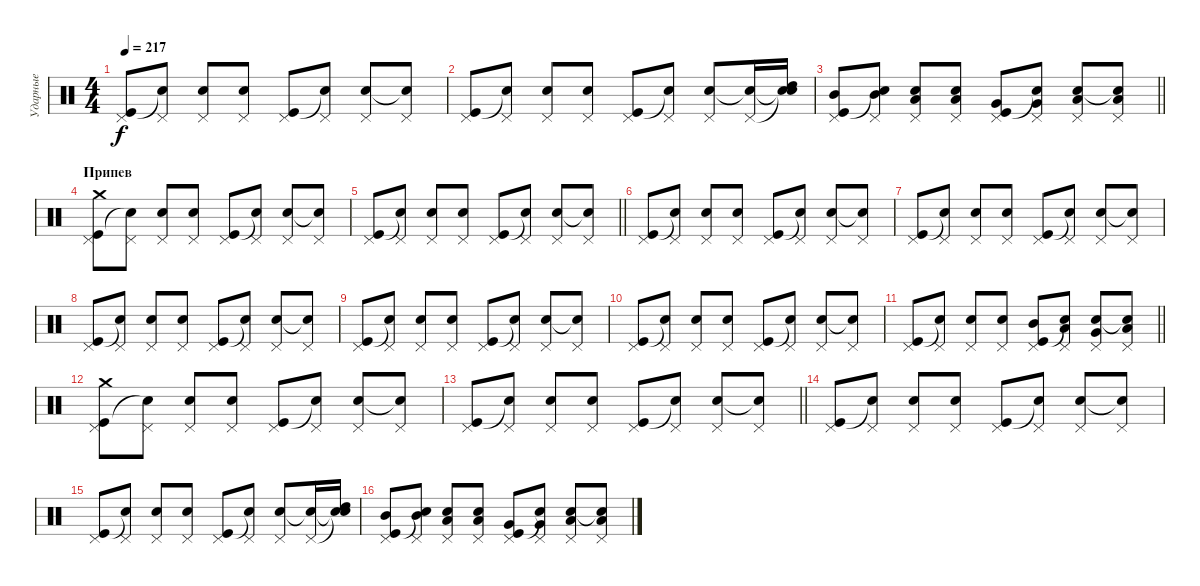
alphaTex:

\track ("Ударные" "Ударные") {instrument percussion}
\staff {score}
\articulation defaults
\ts (4 4)
\tempo 217
\clef neutral
\ks c
("Pedal Hi-Hat (hit)" "Kick (hit)").8{dy f} ("Pedal Hi-Hat (hit)" "Snare (hit)"{t}).8 ("Pedal Hi-Hat (hit)" "Snare (hit) 2").8 ("Pedal Hi-Hat (hit)" "Snare (hit) 2").8 ("Pedal Hi-Hat (hit)" "Kick (hit)").8 ("Pedal Hi-Hat (hit)" "Snare (hit)"{t}).8 ("Pedal Hi-Hat (hit)" "Snare (hit) 2").8 ("Pedal Hi-Hat (hit)" "Snare (hit)"{t}).8 |
("Pedal Hi-Hat (hit)" "Kick (hit)").8 ("Pedal Hi-Hat (hit)" "Snare (hit)"{t}).8 ("Pedal Hi-Hat (hit)" "Snare (hit) 2").8 ("Pedal Hi-Hat (hit)" "Snare (hit) 2").8 ("Pedal Hi-Hat (hit)" "Kick (hit)").8 ("Pedal Hi-Hat (hit)" "Snare (hit)"{t}).8 ("Pedal Hi-Hat (hit)" "Snare (hit) 2").8 ("Pedal Hi-Hat (hit)" "Snare (hit)"{t}).16 ("Snare (hit)"{t} "Snare (hit)"{t} "High Tom (hit)").16 |
\barLineRight lightlight
("Pedal Hi-Hat (hit)" "Kick (hit)" "Mid Tom (hit)").8 ("Pedal Hi-Hat (hit)" "Snare (hit)"{t} "Mid Tom (hit)").8 ("Pedal Hi-Hat (hit)" "Snare (hit) 2" "Low Tom (hit)").8 ("Pedal Hi-Hat (hit)" "Snare (hit) 2" "Low Tom (hit)").8 ("Pedal Hi-Hat (hit)" "Kick (hit)" "Very Low Tom (hit)").8 ("Pedal Hi-Hat (hit)" "Snare (hit)"{t} "Very Low Tom (hit)").8 ("Pedal Hi-Hat (hit)" "Snare (hit) 2" "Low Floor Tom (hit)").8 ("Pedal Hi-Hat (hit)" "Snare (hit)"{t} "Low Floor Tom (hit)").8 |
\section ("" "Припев")
("Pedal Hi-Hat (hit)" "Kick (hit)" "Crash medium (hit)").8 ("Pedal Hi-Hat (hit)" "Snare (hit)"{t}).8 ("Pedal Hi-Hat (hit)" "Snare (hit) 2").8 ("Pedal Hi-Hat (hit)" "Snare (hit) 2").8 ("Pedal Hi-Hat (hit)" "Kick (hit)").8 ("Pedal Hi-Hat (hit)" "Snare (hit)"{t}).8 ("Pedal Hi-Hat (hit)" "Snare (hit) 2").8 ("Pedal Hi-Hat (hit)" "Snare (hit)"{t}).8 |
\barLineRight lightlight
("Pedal Hi-Hat (hit)" "Kick (hit)").8 ("Pedal Hi-Hat (hit)" "Snare (hit)"{t}).8 ("Pedal Hi-Hat (hit)" "Snare (hit) 2").8 ("Pedal Hi-Hat (hit)" "Snare (hit) 2").8 ("Pedal Hi-Hat (hit)" "Kick (hit)").8 ("Pedal Hi-Hat (hit)" "Snare (hit)"{t}).8 ("Pedal Hi-Hat (hit)" "Snare (hit) 2").8 ("Pedal Hi-Hat (hit)" "Snare (hit)"{t}).8 |
("Pedal Hi-Hat (hit)" "Kick (hit)").8 ("Pedal Hi-Hat (hit)" "Snare (hit)"{t}).8 ("Pedal Hi-Hat (hit)" "Snare (hit) 2").8 ("Pedal Hi-Hat (hit)" "Snare (hit) 2").8 ("Pedal Hi-Hat (hit)" "Kick (hit)").8 ("Pedal Hi-Hat (hit)" "Snare (hit)"{t}).8 ("Pedal Hi-Hat (hit)" "Snare (hit) 2").8 ("Pedal Hi-Hat (hit)" "Snare (hit)"{t}).8 |
("Pedal Hi-Hat (hit)" "Kick (hit)").8 ("Pedal Hi-Hat (hit)" "Snare (hit)"{t}).8 ("Pedal Hi-Hat (hit)" "Snare (hit) 2").8 ("Pedal Hi-Hat (hit)" "Snare (hit) 2").8 ("Pedal Hi-Hat (hit)" "Kick (hit)").8 ("Pedal Hi-Hat (hit)" "Snare (hit)"{t}).8 ("Pedal Hi-Hat (hit)" "Snare (hit) 2").8 ("Pedal Hi-Hat (hit)" "Snare (hit)"{t}).8 |
("Pedal Hi-Hat (hit)" "Kick (hit)").8 ("Pedal Hi-Hat (hit)" "Snare (hit)"{t}).8 ("Pedal Hi-Hat (hit)" "Snare (hit) 2").8 ("Pedal Hi-Hat (hit)" "Snare (hit) 2").8 ("Pedal Hi-Hat (hit)" "Kick (hit)").8 ("Pedal Hi-Hat (hit)" "Snare (hit)"{t}).8 ("Pedal Hi-Hat (hit)" "Snare (hit) 2").8 ("Pedal Hi-Hat (hit)" "Snare (hit)"{t}).8 |
("Pedal Hi-Hat (hit)" "Kick (hit)").8 ("Pedal Hi-Hat (hit)" "Snare (hit)"{t}).8 ("Pedal Hi-Hat (hit)" "Snare (hit) 2").8 ("Pedal Hi-Hat (hit)" "Snare (hit) 2").8 ("Pedal Hi-Hat (hit)" "Kick (hit)").8 ("Pedal Hi-Hat (hit)" "Snare (hit)"{t}).8 ("Pedal Hi-Hat (hit)" "Snare (hit) 2").8 ("Pedal Hi-Hat (hit)" "Snare (hit)"{t}).8 |
("Pedal Hi-Hat (hit)" "Kick (hit)").8 ("Pedal Hi-Hat (hit)" "Snare (hit)"{t}).8 ("Pedal Hi-Hat (hit)" "Snare (hit) 2").8 ("Pedal Hi-Hat (hit)" "Snare (hit) 2").8 ("Pedal Hi-Hat (hit)" "Kick (hit)").8 ("Pedal Hi-Hat (hit)" "Snare (hit)"{t}).8 ("Pedal Hi-Hat (hit)" "Snare (hit) 2").8 ("Pedal Hi-Hat (hit)" "Snare (hit)"{t}).8 |
\barLineRight lightlight
("Pedal Hi-Hat (hit)" "Kick (hit)").8 ("Pedal Hi-Hat (hit)" "Snare (hit)"{t}).8 ("Pedal Hi-Hat (hit)" "Snare (hit) 2").8 ("Pedal Hi-Hat (hit)" "Snare (hit) 2").8 ("Pedal Hi-Hat (hit)" "Kick (hit)" "Mid Tom (hit)").8 ("Pedal Hi-Hat (hit)" "Snare (hit)"{t} "Low Tom (hit)").8 ("Pedal Hi-Hat (hit)" "Snare (hit) 2" "Very Low Tom (hit)").8 ("Pedal Hi-Hat (hit)" "Snare (hit)"{t} "Low Floor Tom (hit)").8 |
("Pedal Hi-Hat (hit)" "Kick (hit)" "Crash medium (hit)").8 ("Pedal Hi-Hat (hit)" "Snare (hit)"{t}).8 ("Pedal Hi-Hat (hit)" "Snare (hit) 2").8 ("Pedal Hi-Hat (hit)" "Snare (hit) 2").8 ("Pedal Hi-Hat (hit)" "Kick (hit)").8 ("Pedal Hi-Hat (hit)" "Snare (hit)"{t}).8 ("Pedal Hi-Hat (hit)" "Snare (hit) 2").8 ("Pedal Hi-Hat (hit)" "Snare (hit)"{t}).8 |
\barLineRight lightlight
("Pedal Hi-Hat (hit)" "Kick (hit)").8 ("Pedal Hi-Hat (hit)" "Snare (hit)"{t}).8 ("Pedal Hi-Hat (hit)" "Snare (hit) 2").8 ("Pedal Hi-Hat (hit)" "Snare (hit) 2").8 ("Pedal Hi-Hat (hit)" "Kick (hit)").8 ("Pedal Hi-Hat (hit)" "Snare (hit)"{t}).8 ("Pedal Hi-Hat (hit)" "Snare (hit) 2").8 ("Pedal Hi-Hat (hit)" "Snare (hit)"{t}).8 |
("Pedal Hi-Hat (hit)" "Kick (hit)").8 ("Pedal Hi-Hat (hit)" "Snare (hit)"{t}).8 ("Pedal Hi-Hat (hit)" "Snare (hit) 2").8 ("Pedal Hi-Hat (hit)" "Snare (hit) 2").8 ("Pedal Hi-Hat (hit)" "Kick (hit)").8 ("Pedal Hi-Hat (hit)" "Snare (hit)"{t}).8 ("Pedal Hi-Hat (hit)" "Snare (hit) 2").8 ("Pedal Hi-Hat (hit)" "Snare (hit)"{t}).8 |
("Pedal Hi-Hat (hit)" "Kick (hit)").8 ("Pedal Hi-Hat (hit)" "Snare (hit)"{t}).8 ("Pedal Hi-Hat (hit)" "Snare (hit) 2").8 ("Pedal Hi-Hat (hit)" "Snare (hit) 2").8 ("Pedal Hi-Hat (hit)" "Kick (hit)").8 ("Pedal Hi-Hat (hit)" "Snare (hit)"{t}).8 ("Pedal Hi-Hat (hit)" "Snare (hit) 2").8 ("Pedal Hi-Hat (hit)" "Snare (hit)"{t}).16 ("Snare (hit)"{t} "Snare (hit)"{t} "High Tom (hit)").16 |
("Pedal Hi-Hat (hit)" "Kick (hit)" "Mid Tom (hit)").8 ("Pedal Hi-Hat (hit)" "Snare (hit)"{t} "Mid Tom (hit)").8 ("Pedal Hi-Hat (hit)" "Snare (hit) 2" "Low Tom (hit)").8 ("Pedal Hi-Hat (hit)" "Snare (hit) 2" "Low Tom (hit)").8 ("Pedal Hi-Hat (hit)" "Kick (hit)" "Very Low Tom (hit)").8 ("Pedal Hi-Hat (hit)" "Snare (hit)"{t} "Very Low Tom (hit)").8 ("Pedal Hi-Hat (hit)" "Snare (hit) 2" "Low Floor Tom (hit)").8 ("Pedal Hi-Hat (hit)" "Snare (hit)"{t} "Low Floor Tom (hit)").8
